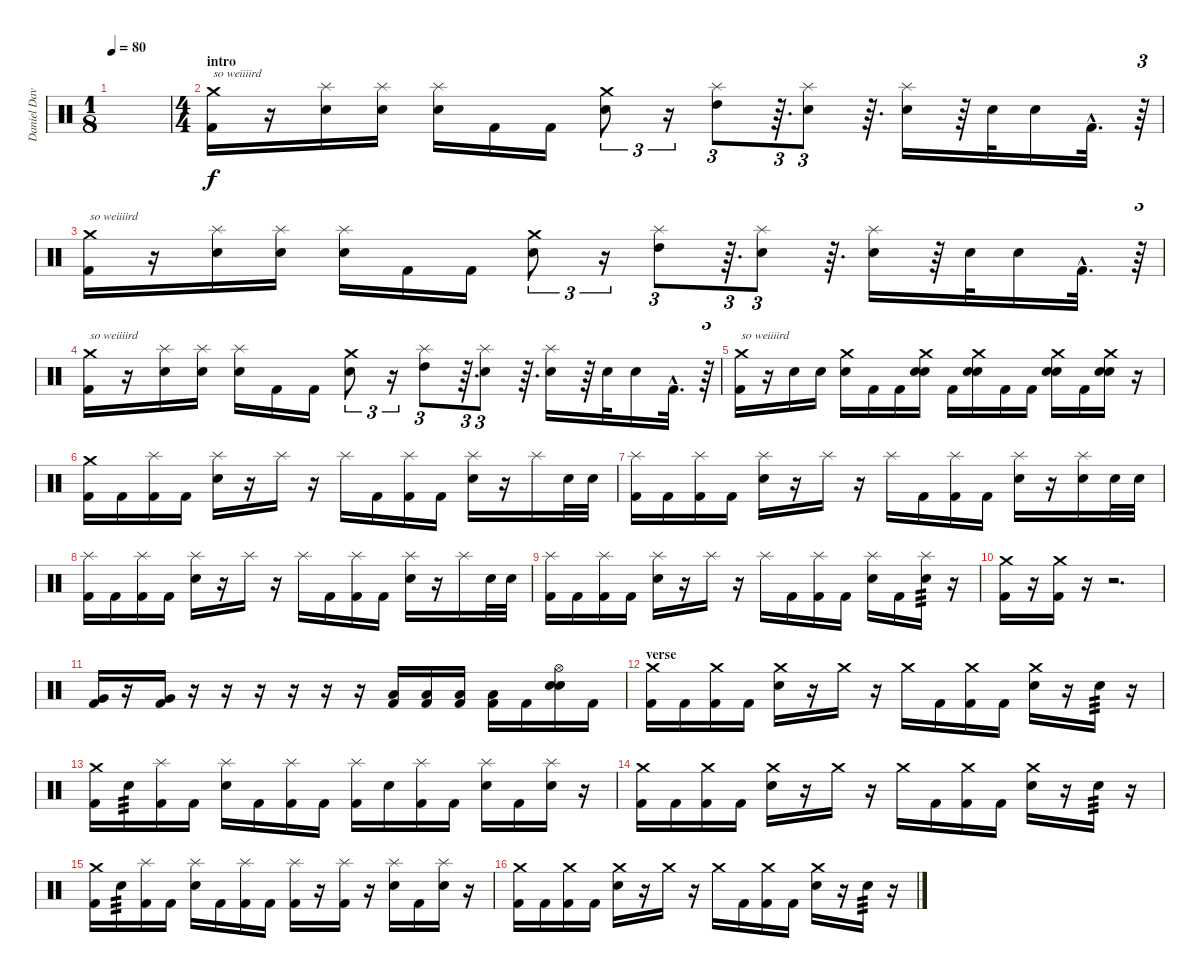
\track ("Daniel Davison" "Daniel Dav") {instrument percussion}
\staff {score}
\articulation defaults
\ts (1 8)
\tempo 80
\clef neutral
\ks c
|
\ts (4 4)
\section ("" "intro")
("Crash medium (hit)" "Kick (hit) 2").16{txt "so weiiiird"} r.16 ("Splash (hit)" "Electric Snare (hit)").16 ("Splash (hit)" "Electric Snare (hit)").16 ("Splash (hit)" "Electric Snare (hit)").16 "Kick (hit) 2".16 "Kick (hit) 2".16 ("Crash medium (hit)" "Electric Snare (hit)").8{tu (3 2)} r.16{tu (3 2)} ("Splash (hit)" "High Tom (hit)").8{tu (3 2)} r.64{d tu (3 2)} ("Splash (hit)" "Electric Snare (hit)").8{tu (3 2)} r.64{d} ("Splash (hit)" "Electric Snare (hit)").16 r.64 "Electric Snare (hit)".32 "Electric Snare (hit)".16 "Kick (hit) 2"{hac}.32{d} r.64{tu (3 2)} |
("Crash medium (hit)" "Kick (hit) 2").16{txt "so weiiiird"} r.16 ("Splash (hit)" "Electric Snare (hit)").16 ("Splash (hit)" "Electric Snare (hit)").16 ("Splash (hit)" "Electric Snare (hit)").16 "Kick (hit) 2".16 "Kick (hit) 2".16 ("Crash medium (hit)" "Electric Snare (hit)").8{tu (3 2)} r.16{tu (3 2)} ("Splash (hit)" "High Tom (hit)").8{tu (3 2)} r.64{d tu (3 2)} ("Splash (hit)" "Electric Snare (hit)").8{tu (3 2)} r.64{d} ("Splash (hit)" "Electric Snare (hit)").16 r.64 "Electric Snare (hit)".32 "Electric Snare (hit)".16 "Kick (hit) 2"{hac}.32{d} r.64{tu (3 2)} |
("Crash medium (hit)" "Kick (hit) 2").16{txt "so weiiiird"} r.16 ("Splash (hit)" "Electric Snare (hit)").16 ("Splash (hit)" "Electric Snare (hit)").16 ("Splash (hit)" "Electric Snare (hit)").16 "Kick (hit) 2".16 "Kick (hit) 2".16 ("Crash medium (hit)" "Electric Snare (hit)").8{tu (3 2)} r.16{tu (3 2)} ("Splash (hit)" "High Tom (hit)").8{tu (3 2)} r.64{d tu (3 2)} ("Splash (hit)" "Electric Snare (hit)").8{tu (3 2)} r.64{d} ("Splash (hit)" "Electric Snare (hit)").16 r.64 "Electric Snare (hit)".32 "Electric Snare (hit)".16 "Kick (hit) 2"{hac}.32{d} r.64{tu (3 2)} |
("Crash medium (hit)" "Kick (hit) 2").16{txt "so weiiiird"} r.16 "Electric Snare (hit)".16 "Electric Snare (hit)".16 ("Crash medium (hit)" "Electric Snare (hit)").16 "Kick (hit) 2".16 "Kick (hit) 2".16 ("Electric Snare (hit)" "Crash medium (hit)" "Electric Snare (hit)").16 "Kick (hit) 2".16 ("Electric Snare (hit)" "Crash medium (hit)" "Electric Snare (hit)").16 "Kick (hit) 2".16 "Kick (hit) 2".16 ("Electric Snare (hit)" "Crash medium (hit)" "Electric Snare (hit)").16 "Kick (hit) 2".16 ("Electric Snare (hit)" "Crash medium (hit)" "Electric Snare (hit)").16 r.16 |
("Crash medium (hit)" "Kick (hit) 2").16 "Kick (hit) 2".16 ("Splash (hit)" "Kick (hit) 2").16 "Kick (hit) 2".16 ("Splash (hit)" "Electric Snare (hit)").16 r.16 "Splash (hit)".16 r.16 "Splash (hit)".16 "Kick (hit) 2".16 ("Splash (hit)" "Kick (hit) 2").16 "Kick (hit) 2".16 ("Splash (hit)" "Electric Snare (hit)").16 r.16 "Splash (hit)".16 "Electric Snare (hit)".32 "Electric Snare (hit)".32 |
("Splash (hit)" "Kick (hit) 2").16 "Kick (hit) 2".16 ("Splash (hit)" "Kick (hit) 2").16 "Kick (hit) 2".16 ("Splash (hit)" "Electric Snare (hit)").16 r.16 "Splash (hit)".16 r.16 "Splash (hit)".16 "Kick (hit) 2".16 ("Splash (hit)" "Kick (hit) 2").16 "Kick (hit) 2".16 ("Splash (hit)" "Electric Snare (hit)").16 r.16 ("Splash (hit)" "Electric Snare (hit)").16 "Electric Snare (hit)".32 "Electric Snare (hit)".32 |
("Splash (hit)" "Kick (hit) 2").16 "Kick (hit) 2".16 ("Splash (hit)" "Kick (hit) 2").16 "Kick (hit) 2".16 ("Splash (hit)" "Electric Snare (hit)").16 r.16 "Splash (hit)".16 r.16 "Splash (hit)".16 "Kick (hit) 2".16 ("Splash (hit)" "Kick (hit) 2").16 "Kick (hit) 2".16 ("Splash (hit)" "Electric Snare (hit)").16 r.16 "Splash (hit)".16 "Electric Snare (hit)".32 "Electric Snare (hit)".32 |
("Splash (hit)" "Kick (hit) 2").16 "Kick (hit) 2".16 ("Splash (hit)" "Kick (hit) 2").16 "Kick (hit) 2".16 ("Splash (hit)" "Electric Snare (hit)").16 r.16 "Splash (hit)".16 r.16 "Splash (hit)".16 "Kick (hit) 2".16 ("Splash (hit)" "Kick (hit) 2").16 "Kick (hit) 2".16 ("Splash (hit)" "Electric Snare (hit)").16 "Kick (hit) 2".16 ("Splash (hit)" "Electric Snare (hit)").16{tp 3} r.16 |
("Crash medium (hit)" "Kick (hit) 2").16 r.16 ("Crash medium (hit)" "Kick (hit) 2").16 r.16 r.2{d} |
("Very Low Tom (hit)" "Kick (hit) 2").16 r.16 ("Very Low Tom (hit)" "Kick (hit) 2").16 r.16 r.16 r.16 r.16 r.16 r.16 ("Low Tom (hit)" "Kick (hit) 2").16 ("Low Tom (hit)" "Kick (hit) 2").16 ("Low Tom (hit)" "Kick (hit) 2").16 ("Low Tom (hit)" "Kick (hit) 2").16 "Kick (hit) 2".16 ("Electric Snare (hit)" "Hi-Hat (open)" "Electric Snare (hit)").16 "Kick (hit) 2".16 |
\section ("" "verse")
("Crash medium (hit)" "Kick (hit) 2").16 "Kick (hit) 2".16 ("Crash medium (hit)" "Kick (hit) 2").16 "Kick (hit) 2".16 ("Crash medium (hit)" "Electric Snare (hit)").16 r.16 "Crash medium (hit)".16 r.16 "Crash medium (hit)".16 "Kick (hit) 2".16 ("Crash medium (hit)" "Kick (hit) 2").16 "Kick (hit) 2".16 ("Crash medium (hit)" "Electric Snare (hit)").16 r.16 "Electric Snare (hit)".16{tp 3} r.16 |
("Crash medium (hit)" "Kick (hit) 2").16 "Electric Snare (hit)".16{tp 3} ("Splash (hit)" "Kick (hit) 2").16 "Kick (hit) 2".16 ("Splash (hit)" "Electric Snare (hit)").16 "Kick (hit) 2".16 ("Splash (hit)" "Kick (hit) 2").16 "Kick (hit) 2".16 ("Splash (hit)" "Kick (hit) 2").16 "Electric Snare (hit)".16 ("Splash (hit)" "Kick (hit) 2").16 "Kick (hit) 2".16 ("Splash (hit)" "Electric Snare (hit)").16 "Kick (hit) 2".16 ("Splash (hit)" "Electric Snare (hit)").16 r.16 |
("Crash medium (hit)" "Kick (hit) 2").16 "Kick (hit) 2".16 ("Crash medium (hit)" "Kick (hit) 2").16 "Kick (hit) 2".16 ("Crash medium (hit)" "Electric Snare (hit)").16 r.16 "Crash medium (hit)".16 r.16 "Crash medium (hit)".16 "Kick (hit) 2".16 ("Crash medium (hit)" "Kick (hit) 2").16 "Kick (hit) 2".16 ("Crash medium (hit)" "Electric Snare (hit)").16 r.16 "Electric Snare (hit)".16{tp 3} r.16 |
("Crash medium (hit)" "Kick (hit) 2").16 "Electric Snare (hit)".16{tp 3} ("Splash (hit)" "Kick (hit) 2").16 "Kick (hit) 2".16 ("Splash (hit)" "Electric Snare (hit)").16 "Kick (hit) 2".16 ("Splash (hit)" "Kick (hit) 2").16 "Kick (hit) 2".16 ("Splash (hit)" "Kick (hit) 2").16 r.16 ("Splash (hit)" "Kick (hit) 2").16 r.16 ("Splash (hit)" "Electric Snare (hit)").16 "Kick (hit) 2".16 ("Splash (hit)" "Electric Snare (hit)").16 r.16 |
("Crash medium (hit)" "Kick (hit) 2").16 "Kick (hit) 2".16 ("Crash medium (hit)" "Kick (hit) 2").16 "Kick (hit) 2".16 ("Crash medium (hit)" "Electric Snare (hit)").16 r.16 "Crash medium (hit)".16 r.16 "Crash medium (hit)".16 "Kick (hit) 2".16 ("Crash medium (hit)" "Kick (hit) 2").16 "Kick (hit) 2".16 ("Crash medium (hit)" "Electric Snare (hit)").16 r.16 "Electric Snare (hit)".16{tp 3} r.16
